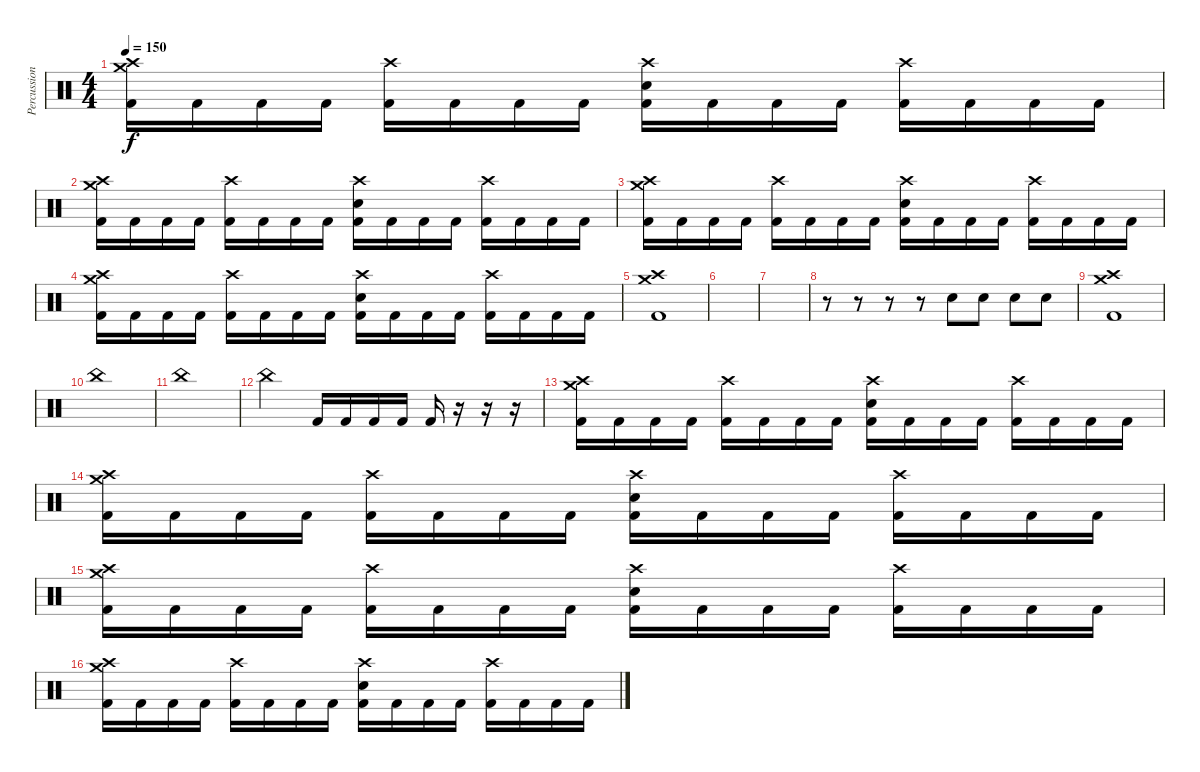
\track ("Percussion" "Percussion") {instrument percussion}
\staff {score}
\articulation defaults
\ts (4 4)
\tempo 150
\clef neutral
\ks c
("Crash high (hit)" "Crash medium (hit)" "Kick (hit) 2").16{dy f} "Kick (hit) 2".16 "Kick (hit) 2".16 "Kick (hit) 2".16 ("Crash high (hit)" "Kick (hit) 2").16 "Kick (hit) 2".16 "Kick (hit) 2".16 "Kick (hit) 2".16 ("Crash high (hit)" "Electric Snare (hit)" "Kick (hit) 2").16 "Kick (hit) 2".16 "Kick (hit) 2".16 "Kick (hit) 2".16 ("Crash high (hit)" "Kick (hit) 2").16 "Kick (hit) 2".16 "Kick (hit) 2".16 "Kick (hit) 2".16 |
("Crash high (hit)" "Crash medium (hit)" "Kick (hit) 2").16 "Kick (hit) 2".16 "Kick (hit) 2".16 "Kick (hit) 2".16 ("Crash high (hit)" "Kick (hit) 2").16 "Kick (hit) 2".16 "Kick (hit) 2".16 "Kick (hit) 2".16 ("Crash high (hit)" "Electric Snare (hit)" "Kick (hit) 2").16 "Kick (hit) 2".16 "Kick (hit) 2".16 "Kick (hit) 2".16 ("Crash high (hit)" "Kick (hit) 2").16 "Kick (hit) 2".16 "Kick (hit) 2".16 "Kick (hit) 2".16 |
("Crash high (hit)" "Crash medium (hit)" "Kick (hit) 2").16 "Kick (hit) 2".16 "Kick (hit) 2".16 "Kick (hit) 2".16 ("Crash high (hit)" "Kick (hit) 2").16 "Kick (hit) 2".16 "Kick (hit) 2".16 "Kick (hit) 2".16 ("Crash high (hit)" "Electric Snare (hit)" "Kick (hit) 2").16 "Kick (hit) 2".16 "Kick (hit) 2".16 "Kick (hit) 2".16 ("Crash high (hit)" "Kick (hit) 2").16 "Kick (hit) 2".16 "Kick (hit) 2".16 "Kick (hit) 2".16 |
("Crash high (hit)" "Crash medium (hit)" "Kick (hit) 2").16 "Kick (hit) 2".16 "Kick (hit) 2".16 "Kick (hit) 2".16 ("Crash high (hit)" "Kick (hit) 2").16 "Kick (hit) 2".16 "Kick (hit) 2".16 "Kick (hit) 2".16 ("Crash high (hit)" "Electric Snare (hit)" "Kick (hit) 2").16 "Kick (hit) 2".16 "Kick (hit) 2".16 "Kick (hit) 2".16 ("Crash high (hit)" "Kick (hit) 2").16 "Kick (hit) 2".16 "Kick (hit) 2".16 "Kick (hit) 2".16 |
("Crash high (hit)" "Crash medium (hit)" "Kick (hit) 2").1 |
|
|
r.8 r.8 r.8 r.8 "Electric Snare (hit)".8 "Electric Snare (hit)".8 "Electric Snare (hit)".8 "Electric Snare (hit)".8 |
("Crash high (hit)" "Crash medium (hit)" "Kick (hit) 2").1 |
"China (hit)".1 |
"China (hit)".1 |
"China (hit)".2 "Kick (hit) 2".16 "Kick (hit) 2".16 "Kick (hit) 2".16 "Kick (hit) 2".16 "Kick (hit) 2".16 r.16 r.16 r.16 |
("Crash high (hit)" "Crash medium (hit)" "Kick (hit) 2").16 "Kick (hit) 2".16 "Kick (hit) 2".16 "Kick (hit) 2".16 ("Crash high (hit)" "Kick (hit) 2").16 "Kick (hit) 2".16 "Kick (hit) 2".16 "Kick (hit) 2".16 ("Crash high (hit)" "Electric Snare (hit)" "Kick (hit) 2").16 "Kick (hit) 2".16 "Kick (hit) 2".16 "Kick (hit) 2".16 ("Crash high (hit)" "Kick (hit) 2").16 "Kick (hit) 2".16 "Kick (hit) 2".16 "Kick (hit) 2".16 |
("Crash high (hit)" "Crash medium (hit)" "Kick (hit) 2").16 "Kick (hit) 2".16 "Kick (hit) 2".16 "Kick (hit) 2".16 ("Crash high (hit)" "Kick (hit) 2").16 "Kick (hit) 2".16 "Kick (hit) 2".16 "Kick (hit) 2".16 ("Crash high (hit)" "Electric Snare (hit)" "Kick (hit) 2").16 "Kick (hit) 2".16 "Kick (hit) 2".16 "Kick (hit) 2".16 ("Crash high (hit)" "Kick (hit) 2").16 "Kick (hit) 2".16 "Kick (hit) 2".16 "Kick (hit) 2".16 |
("Crash high (hit)" "Crash medium (hit)" "Kick (hit) 2").16 "Kick (hit) 2".16 "Kick (hit) 2".16 "Kick (hit) 2".16 ("Crash high (hit)" "Kick (hit) 2").16 "Kick (hit) 2".16 "Kick (hit) 2".16 "Kick (hit) 2".16 ("Crash high (hit)" "Electric Snare (hit)" "Kick (hit) 2").16 "Kick (hit) 2".16 "Kick (hit) 2".16 "Kick (hit) 2".16 ("Crash high (hit)" "Kick (hit) 2").16 "Kick (hit) 2".16 "Kick (hit) 2".16 "Kick (hit) 2".16 |
("Crash high (hit)" "Crash medium (hit)" "Kick (hit) 2").16 "Kick (hit) 2".16 "Kick (hit) 2".16 "Kick (hit) 2".16 ("Crash high (hit)" "Kick (hit) 2").16 "Kick (hit) 2".16 "Kick (hit) 2".16 "Kick (hit) 2".16 ("Crash high (hit)" "Electric Snare (hit)" "Kick (hit) 2").16 "Kick (hit) 2".16 "Kick (hit) 2".16 "Kick (hit) 2".16 ("Crash high (hit)" "Kick (hit) 2").16 "Kick (hit) 2".16 "Kick (hit) 2".16 "Kick (hit) 2".16
